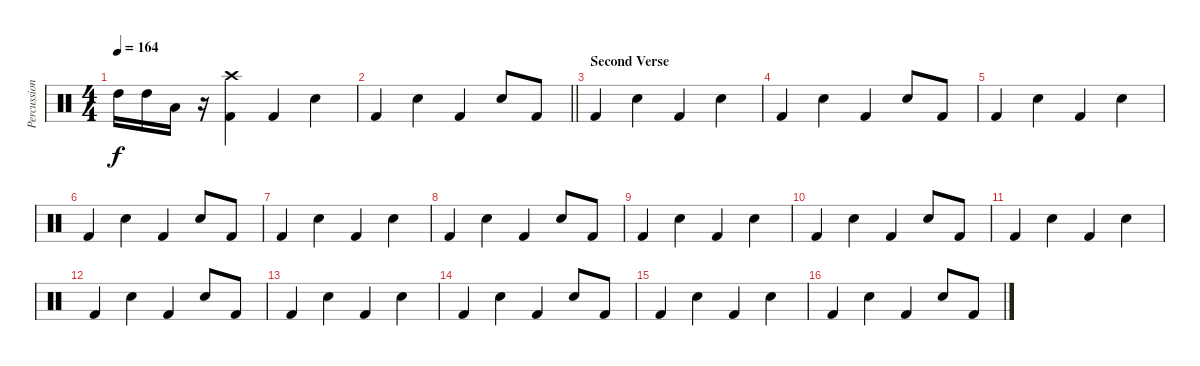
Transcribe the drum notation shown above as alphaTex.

\track ("Percussions" "Percussion") {instrument percussion}
\staff {score}
\articulation defaults
\ts (4 4)
\tempo 164
\clef neutral
\ks c "High Tom (hit)".16{dy f} "High Tom (hit)".16 "Low Tom (hit)".16
r.16 ("Crash high (hit)" "Kick (hit) 2").4 "Kick (hit) 2".4 "Electric Snare (hit)".4 |
\barLineRight lightlight "Kick (hit) 2".4 "Electric Snare (hit)".4 "Kick (hit) 2".4 "Electric Snare (hit)".8 "Kick (hit) 2".8
|
\section ("" "Second Verse")
"Kick (hit) 2".4 "Electric Snare (hit)".4 "Kick (hit) 2".4 "Electric Snare (hit)".4 |
"Kick (hit) 2".4 "Electric Snare (hit)".4 "Kick (hit) 2".4 "Electric Snare (hit)".8 "Kick (hit) 2".8 |
"Kick (hit) 2".4 "Electric Snare (hit)".4 "Kick (hit) 2".4 "Electric Snare (hit)".4 |
"Kick (hit) 2".4 "Electric Snare (hit)".4 "Kick (hit) 2".4 "Electric Snare (hit)".8 "Kick (hit) 2".8 |
"Kick (hit) 2".4 "Electric Snare (hit)".4 "Kick (hit) 2".4 "Electric Snare (hit)".4 |
"Kick (hit) 2".4 "Electric Snare (hit)".4 "Kick (hit) 2".4 "Electric Snare (hit)".8 "Kick (hit) 2".8 |
"Kick (hit) 2".4 "Electric Snare (hit)".4 "Kick (hit) 2".4 "Electric Snare (hit)".4 |
"Kick (hit) 2".4 "Electric Snare (hit)".4 "Kick (hit) 2".4 "Electric Snare (hit)".8 "Kick (hit) 2".8 |
"Kick (hit) 2".4 "Electric Snare (hit)".4 "Kick (hit) 2".4 "Electric Snare (hit)".4 |
"Kick (hit) 2".4 "Electric Snare (hit)".4 "Kick (hit) 2".4 "Electric Snare (hit)".8 "Kick (hit) 2".8 |
"Kick (hit) 2".4 "Electric Snare (hit)".4 "Kick (hit) 2".4 "Electric Snare (hit)".4 |
"Kick (hit) 2".4 "Electric Snare (hit)".4 "Kick (hit) 2".4 "Electric Snare (hit)".8 "Kick (hit) 2".8 |
"Kick (hit) 2".4 "Electric Snare (hit)".4 "Kick (hit) 2".4 "Electric Snare (hit)".4 |
"Kick (hit) 2".4 "Electric Snare (hit)".4 "Kick (hit) 2".4 "Electric Snare (hit)".8 "Kick (hit) 2".8
